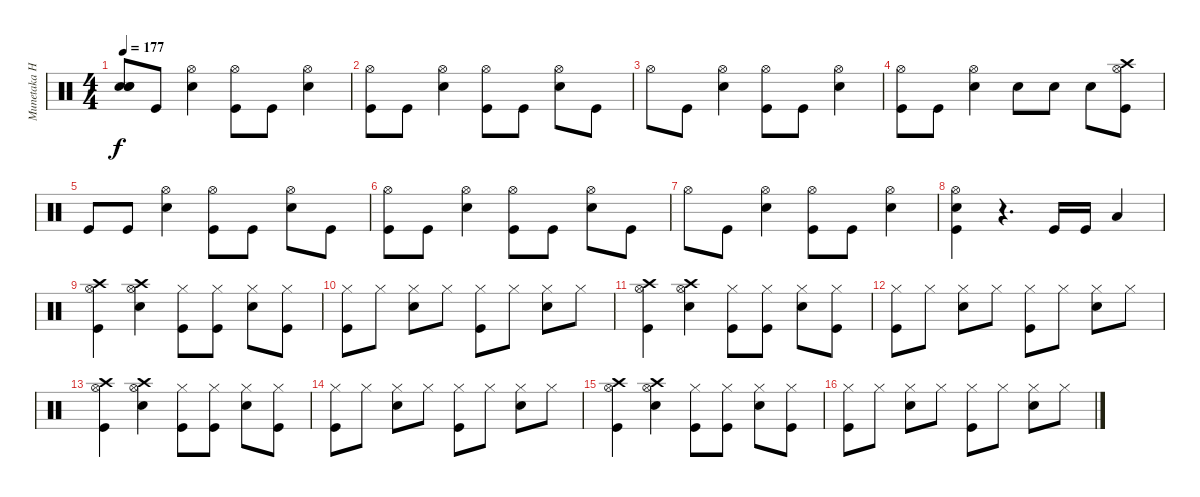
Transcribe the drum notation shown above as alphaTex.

\track ("Munetaka Higuchi" "Munetaka H") {instrument percussion}
\staff {score}
\articulation defaults
\ts (4 4)
\tempo 177
\clef neutral
\ks c
("Snare (hit)"{t} "Snare (hit)"{t} "Snare (hit)"{t}).8{dy f} "Kick (hit)".8 ("Hi-Hat (open)" "Snare (hit) 2").4 ("Hi-Hat (open)" "Kick (hit)").8 "Kick (hit)".8 ("Hi-Hat (open)" "Snare (hit) 2").4 |
("Hi-Hat (open)" "Kick (hit)").8 "Kick (hit)".8 ("Hi-Hat (open)" "Snare (hit) 2").4 ("Hi-Hat (open)" "Kick (hit)").8 "Kick (hit)".8 ("Hi-Hat (open)" "Snare (hit) 2").8 "Kick (hit)".8 |
"Hi-Hat (open)".8 "Kick (hit)".8 ("Hi-Hat (open)" "Snare (hit) 2").4 ("Hi-Hat (open)" "Kick (hit)").8 "Kick (hit)".8 ("Hi-Hat (open)" "Snare (hit) 2").4 |
("Hi-Hat (open)" "Kick (hit)").8 "Kick (hit)".8 ("Hi-Hat (open)" "Snare (hit) 2").4 "Snare (hit) 2".8 "Snare (hit) 2".8 "Snare (hit) 2".8 ("Crash high (hit)" "Hi-Hat (open)" "Kick (hit)").8 |
"Kick (hit)".8 "Kick (hit)".8 ("Hi-Hat (open)" "Snare (hit) 2").4 ("Hi-Hat (open)" "Kick (hit)").8 "Kick (hit)".8 ("Hi-Hat (open)" "Snare (hit) 2").8 "Kick (hit)".8 |
("Hi-Hat (open)" "Kick (hit)").8 "Kick (hit)".8 ("Hi-Hat (open)" "Snare (hit) 2").4 ("Hi-Hat (open)" "Kick (hit)").8 "Kick (hit)".8 ("Hi-Hat (open)" "Snare (hit) 2").8 "Kick (hit)".8 |
"Hi-Hat (open)".8 "Kick (hit)".8 ("Hi-Hat (open)" "Snare (hit) 2").4 ("Hi-Hat (open)" "Kick (hit)").8 "Kick (hit)".8 ("Hi-Hat (open)" "Snare (hit) 2").4 |
("Hi-Hat (open)" "Snare (hit) 2" "Kick (hit)").4 r.4{d} "Kick (hit)".16 "Kick (hit)".16 "Low Tom (hit)".4 |
("Crash high (hit)" "Hi-Hat (open)" "Kick (hit)").4 ("Crash high (hit)" "Hi-Hat (open)" "Snare (hit) 2").4 ("Hi-Hat (closed)" "Kick (hit)").8 ("Hi-Hat (closed)" "Kick (hit)").8 ("Hi-Hat (closed)" "Snare (hit) 2").8 ("Hi-Hat (closed)" "Kick (hit)").8 |
("Hi-Hat (closed)" "Kick (hit)").8 "Hi-Hat (closed)".8 ("Hi-Hat (closed)" "Snare (hit) 2").8 "Hi-Hat (closed)".8 ("Hi-Hat (closed)" "Kick (hit)").8 "Hi-Hat (closed)".8 ("Hi-Hat (closed)" "Snare (hit) 2").8 "Hi-Hat (closed)".8 |
("Crash high (hit)" "Hi-Hat (open)" "Kick (hit)").4 ("Crash high (hit)" "Hi-Hat (open)" "Snare (hit) 2").4 ("Hi-Hat (closed)" "Kick (hit)").8 ("Hi-Hat (closed)" "Kick (hit)").8 ("Hi-Hat (closed)" "Snare (hit) 2").8 ("Hi-Hat (closed)" "Kick (hit)").8 |
("Hi-Hat (closed)" "Kick (hit)").8 "Hi-Hat (closed)".8 ("Hi-Hat (closed)" "Snare (hit) 2").8 "Hi-Hat (closed)".8 ("Hi-Hat (closed)" "Kick (hit)").8 "Hi-Hat (closed)".8 ("Hi-Hat (closed)" "Snare (hit) 2").8 "Hi-Hat (closed)".8 |
("Crash high (hit)" "Hi-Hat (open)" "Kick (hit)").4 ("Crash high (hit)" "Hi-Hat (open)" "Snare (hit) 2").4 ("Hi-Hat (closed)" "Kick (hit)").8 ("Hi-Hat (closed)" "Kick (hit)").8 ("Hi-Hat (closed)" "Snare (hit) 2").8 ("Hi-Hat (closed)" "Kick (hit)").8 |
("Hi-Hat (closed)" "Kick (hit)").8 "Hi-Hat (closed)".8 ("Hi-Hat (closed)" "Snare (hit) 2").8 "Hi-Hat (closed)".8 ("Hi-Hat (closed)" "Kick (hit)").8 "Hi-Hat (closed)".8 ("Hi-Hat (closed)" "Snare (hit) 2").8 "Hi-Hat (closed)".8 |
("Crash high (hit)" "Hi-Hat (open)" "Kick (hit)").4 ("Crash high (hit)" "Hi-Hat (open)" "Snare (hit) 2").4 ("Hi-Hat (closed)" "Kick (hit)").8 ("Hi-Hat (closed)" "Kick (hit)").8 ("Hi-Hat (closed)" "Snare (hit) 2").8 ("Hi-Hat (closed)" "Kick (hit)").8 |
("Hi-Hat (closed)" "Kick (hit)").8 "Hi-Hat (closed)".8 ("Hi-Hat (closed)" "Snare (hit) 2").8 "Hi-Hat (closed)".8 ("Hi-Hat (closed)" "Kick (hit)").8 "Hi-Hat (closed)".8 ("Hi-Hat (closed)" "Snare (hit) 2").8 "Hi-Hat (closed)".8
